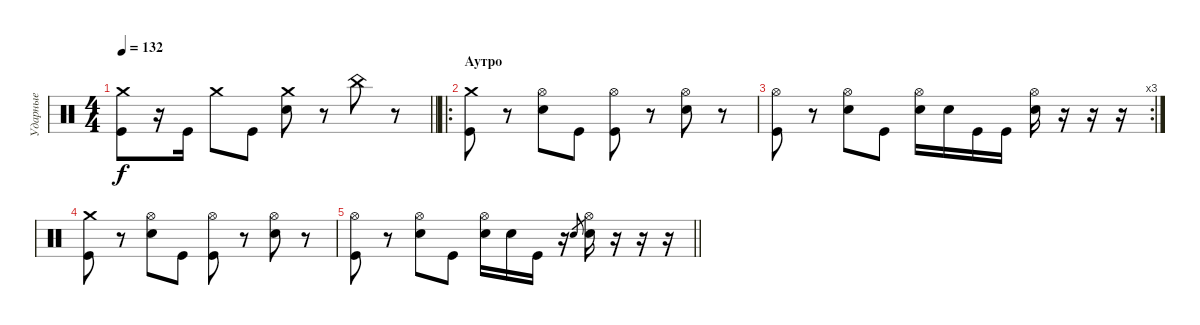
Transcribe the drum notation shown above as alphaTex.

\track ("Ударные" "Ударные") {instrument percussion}
\staff {score}
\articulation defaults
\ts (4 4)
\tempo 132
\clef neutral
\barLineRight lightlight
\ks c
("Crash medium (hit)" "Kick (hit)").8{dy f} r.16 "Kick (hit)".16 "Crash medium (hit)".8 "Kick (hit)".8 ("Crash medium (hit)" "Electric Snare (hit)").8 r.8 "China (hit)".8 r.8 |
\ro
\section ("" "Аутро")
("Crash medium (hit)" "Kick (hit)").8 r.8 ("Hi-Hat (open)" "Electric Snare (hit)").8 "Kick (hit)".8 ("Hi-Hat (open)" "Kick (hit)").8 r.8 ("Hi-Hat (open)" "Electric Snare (hit)").8 r.8 |
\rc 3
("Hi-Hat (open)" "Kick (hit)").8 r.8 ("Hi-Hat (open)" "Electric Snare (hit)").8 "Kick (hit)".8 ("Hi-Hat (open)" "Electric Snare (hit)").16 "Electric Snare (hit)".16 "Kick (hit)".16 "Kick (hit)".16 ("Hi-Hat (open)" "Electric Snare (hit)").16 r.16 r.16 r.16 |
("Crash medium (hit)" "Kick (hit)").8 r.8 ("Hi-Hat (open)" "Electric Snare (hit)").8 "Kick (hit)".8 ("Hi-Hat (open)" "Kick (hit)").8 r.8 ("Hi-Hat (open)" "Electric Snare (hit)").8 r.8 |
\barLineRight lightlight
("Hi-Hat (open)" "Kick (hit)").8 r.8 ("Hi-Hat (open)" "Electric Snare (hit)").8 "Kick (hit)".8 ("Hi-Hat (open)" "Electric Snare (hit)").16 "Electric Snare (hit)".16 "Kick (hit)".16 r.16 "Electric Snare (hit)".8{gr} ("Hi-Hat (open)" "Electric Snare (hit)").16 r.16 r.16 r.16
